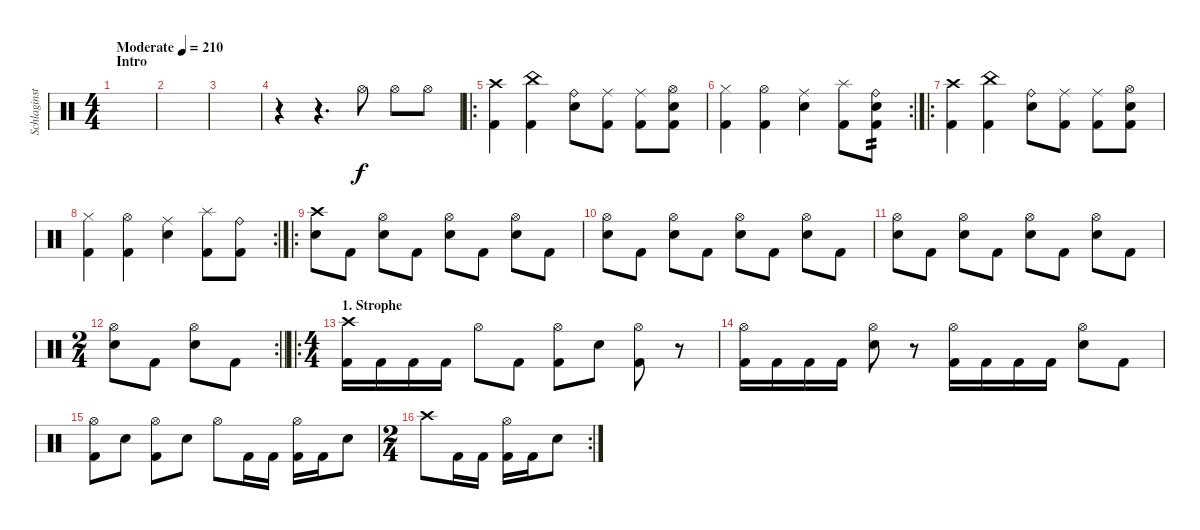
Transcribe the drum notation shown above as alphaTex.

\track ("Schlaginstrumente - Auswahl" "Schlaginst") {instrument percussion}
\staff {score}
\articulation defaults
\ts (4 4)
\section ("" "Intro")
\tempo (210 "Moderate")
\clef neutral
\ks c
|
|
|
r.4 r.4{d} "Hi-Hat (open)".8 "Hi-Hat (open)".8 "Hi-Hat (open)".8 |
\ro
("Crash high (hit)" "Kick (hit) 2").4 ("China (hit)" "Kick (hit) 2").4 ("Ride (bell)" "Snare (hit) 2").8 ("Ride (middle)" "Kick (hit) 2").8 ("Ride (middle)" "Kick (hit) 2").8 ("Hi-Hat (open)" "Snare (hit) 2" "Kick (hit) 2").8 |
\rc 2
("Hi-Hat (closed)" "Kick (hit) 2").4 ("Hi-Hat (open)" "Kick (hit) 2").4 ("Ride (middle)" "Snare (hit) 2").4 ("Splash (hit)" "Kick (hit) 2").8 ("Ride (bell)" "Snare (hit) 2" "Kick (hit) 2").8{tp 2} |
\ro
("Crash high (hit)" "Kick (hit) 2").4 ("China (hit)" "Kick (hit) 2").4 ("Ride (bell)" "Snare (hit) 2").8 ("Ride (middle)" "Kick (hit) 2").8 ("Ride (middle)" "Kick (hit) 2").8 ("Hi-Hat (open)" "Snare (hit) 2" "Kick (hit) 2").8 |
\rc 2
("Hi-Hat (closed)" "Kick (hit) 2").4 ("Hi-Hat (open)" "Kick (hit) 2").4 ("Ride (middle)" "Snare (hit) 2").4 ("Splash (hit)" "Kick (hit) 2").8 ("Ride (bell)" "Kick (hit) 2").8 |
\ro
("Crash high (hit)" "Snare (hit) 2").8 "Kick (hit) 2".8 ("Hi-Hat (open)" "Snare (hit) 2").8 "Kick (hit) 2".8 ("Hi-Hat (open)" "Snare (hit) 2").8 "Kick (hit) 2".8 ("Hi-Hat (open)" "Snare (hit) 2").8 "Kick (hit) 2".8 |
("Hi-Hat (open)" "Snare (hit) 2").8 "Kick (hit) 2".8 ("Hi-Hat (open)" "Snare (hit) 2").8 "Kick (hit) 2".8 ("Hi-Hat (open)" "Snare (hit) 2").8 "Kick (hit) 2".8 ("Hi-Hat (open)" "Snare (hit) 2").8 "Kick (hit) 2".8 |
("Hi-Hat (open)" "Snare (hit) 2").8 "Kick (hit) 2".8 ("Hi-Hat (open)" "Snare (hit) 2").8 "Kick (hit) 2".8 ("Hi-Hat (open)" "Snare (hit) 2").8 "Kick (hit) 2".8 ("Hi-Hat (open)" "Snare (hit) 2").8 "Kick (hit) 2".8 |
\rc 2
\ts (2 4)
\barLineRight lightlight
("Hi-Hat (open)" "Snare (hit) 2").8 "Kick (hit) 2".8 ("Hi-Hat (open)" "Snare (hit) 2").8 "Kick (hit) 2".8 |
\ro
\ts (4 4)
\section ("" "1. Strophe")
("Crash high (hit)" "Kick (hit) 2").16 "Kick (hit) 2".16 "Kick (hit) 2".16 "Kick (hit) 2".16 "Hi-Hat (open)".8 "Kick (hit) 2".8 ("Hi-Hat (open)" "Kick (hit) 2").8 "Snare (hit) 2".8 ("Hi-Hat (open)" "Kick (hit) 2").8 r.8 |
("Hi-Hat (open)" "Kick (hit) 2").16 "Kick (hit) 2".16 "Kick (hit) 2".16 "Kick (hit) 2".16 ("Hi-Hat (open)" "Snare (hit) 2").8 r.8 ("Hi-Hat (open)" "Kick (hit) 2").16 "Kick (hit) 2".16 "Kick (hit) 2".16 "Kick (hit) 2".16 ("Hi-Hat (open)" "Snare (hit) 2").8 "Kick (hit) 2".8 |
("Hi-Hat (open)" "Kick (hit) 2").8 "Snare (hit) 2".8 ("Hi-Hat (open)" "Kick (hit) 2").8 "Snare (hit) 2".8 "Hi-Hat (open)".8 "Kick (hit) 2".16 "Kick (hit) 2".16 ("Hi-Hat (open)" "Kick (hit) 2").16 "Kick (hit) 2".16 "Snare (hit) 2".8 |
\rc 2
\ts (2 4)
"Crash high (hit)".8 "Kick (hit) 2".16 "Kick (hit) 2".16 ("Hi-Hat (open)" "Kick (hit) 2").16 "Kick (hit) 2".16 "Snare (hit) 2".8
